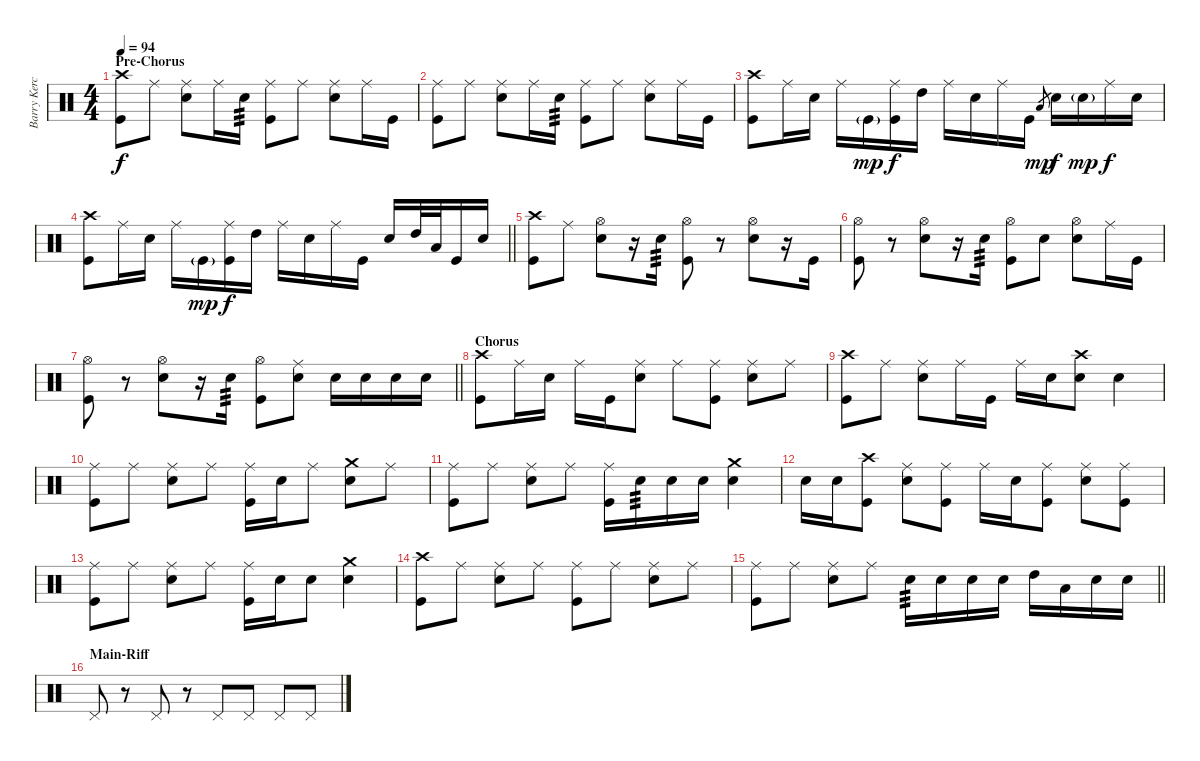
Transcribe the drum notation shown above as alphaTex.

\track ("Barry Kerch" "Barry Kerc") {instrument percussion}
\staff {score}
\articulation defaults
\ts (4 4)
\section ("" "Pre-Chorus")
\tempo 94
\clef neutral
\ks c
("Crash high (hit)" "Kick (hit)").8{dy f} "Ride (middle)".8 ("Ride (middle)" "Snare (hit) 2").8 "Ride (middle)".16 "Snare (hit) 2".16{tp 3} ("Ride (middle)" "Kick (hit)").8 "Ride (middle)".8 ("Ride (middle)" "Snare (hit) 2").8 "Ride (middle)".16 "Kick (hit)".16 |
("Ride (middle)" "Kick (hit)").8 "Ride (middle)".8 ("Ride (middle)" "Snare (hit) 2").8 "Ride (middle)".16 "Snare (hit) 2".16{tp 3} ("Ride (middle)" "Kick (hit)").8 "Ride (middle)".8 ("Ride (middle)" "Snare (hit) 2").8 "Ride (middle)".16 "Kick (hit)".16 |
("Crash high (hit)" "Kick (hit)").8 "Ride (middle)".16 "Snare (hit) 2".16 "Ride (middle)".16 "Kick (hit)"{g}.16{dy mp} ("Ride (middle)" "Kick (hit)").16{dy f} "High Tom (hit)".16 "Ride (middle)".16 "Snare (hit) 2".16 "Ride (middle)".16 "Kick (hit)".16 "Low Tom (hit)".8{gr dy mp} "Snare (hit) 2".16{dy f} "Snare (hit) 2"{g}.16{dy mp} "Ride (middle)".16{dy f} "Snare (hit) 2".16 |
\barLineRight lightlight
("Crash high (hit)" "Kick (hit)").8 "Ride (middle)".16 "Snare (hit) 2".16 "Ride (middle)".16 "Kick (hit)"{g}.16{dy mp} ("Ride (middle)" "Kick (hit)").16{dy f} "High Tom (hit)".16 "Ride (middle)".16 "Snare (hit) 2".16 "Ride (middle)".16 "Kick (hit)".16 "Snare (hit) 2".16 "High Tom (hit)".32 "Low Tom (hit)".32 "Kick (hit)".16 "Snare (hit) 2".16 |
\section ("" "")
("Crash high (hit)" "Kick (hit)").8 "Ride (middle)".8 ("Hi-Hat (open)" "Snare (hit) 2").8 r.16 "Snare (hit) 2".16{tp 3} ("Hi-Hat (open)" "Kick (hit)").8 r.8 ("Hi-Hat (open)" "Snare (hit) 2").8 r.16 "Kick (hit)".16 |
("Hi-Hat (open)" "Kick (hit)").8 r.8 ("Hi-Hat (open)" "Snare (hit) 2").8 r.16 "Snare (hit) 2".16{tp 3} ("Hi-Hat (open)" "Kick (hit)").8 "Snare (hit) 2".8 ("Hi-Hat (open)" "Snare (hit) 2").8 "Ride (middle)".16 "Kick (hit)".16 |
\barLineRight lightlight
("Hi-Hat (open)" "Kick (hit)").8 r.8 ("Hi-Hat (open)" "Snare (hit) 2").8 r.16 "Snare (hit) 2".16{tp 3} ("Hi-Hat (open)" "Kick (hit)").8 ("Ride (middle)" "Snare (hit) 2").8 "Snare (hit) 2".16 "Snare (hit) 2".16 "Snare (hit) 2".16 "Snare (hit) 2".16 |
\section ("" "Chorus")
("Crash high (hit)" "Kick (hit)").8 "Ride (middle)".16 "Snare (hit) 2".16 "Ride (middle)".16 "Kick (hit)".16 ("Ride (middle)" "Snare (hit) 2").8 "Ride (middle)".8 ("Ride (middle)" "Kick (hit)").8 ("Ride (middle)" "Snare (hit) 2").8 "Ride (middle)".8 |
("Crash high (hit)" "Kick (hit)").8 "Ride (middle)".8 ("Ride (middle)" "Snare (hit) 2").8 "Ride (middle)".16 "Kick (hit)".16 "Ride (middle)".16 "Snare (hit) 2".16 ("Crash high (hit)" "Snare (hit) 2").8 "Snare (hit) 2".4 |
("Ride (middle)" "Kick (hit)").8 "Ride (middle)".8 ("Ride (middle)" "Snare (hit) 2").8 "Ride (middle)".8 ("Ride (middle)" "Kick (hit)").16 "Snare (hit) 2".16 "Ride (middle)".8 ("Crash medium (hit)" "Snare (hit) 2").8 "Ride (middle)".8 |
("Ride (middle)" "Kick (hit)").8 "Ride (middle)".8 ("Ride (middle)" "Snare (hit) 2").8 "Ride (middle)".8 ("Ride (middle)" "Kick (hit)").16 "Snare (hit) 2".16{tp 3} "Snare (hit) 2".16 "Snare (hit) 2".16 ("Crash medium (hit)" "Snare (hit) 2").4 |
"Snare (hit) 2".16 "Snare (hit) 2".16 ("Crash high (hit)" "Kick (hit)").8 ("Ride (middle)" "Snare (hit) 2").8 ("Ride (middle)" "Kick (hit)").8 "Ride (middle)".16 "Snare (hit) 2".16 ("Ride (middle)" "Kick (hit)").8 ("Ride (middle)" "Snare (hit) 2").8 ("Ride (middle)" "Kick (hit)").8 |
("Ride (middle)" "Kick (hit)").8 "Ride (middle)".8 ("Ride (middle)" "Snare (hit) 2").8 "Ride (middle)".8 ("Ride (middle)" "Kick (hit)").16 "Snare (hit) 2".16 "Snare (hit) 2".8 ("Crash medium (hit)" "Snare (hit) 2").4 |
("Crash high (hit)" "Kick (hit)").8 "Ride (middle)".8 ("Ride (middle)" "Snare (hit) 2").8 "Ride (middle)".8 ("Ride (middle)" "Kick (hit)").8 "Ride (middle)".8 ("Ride (middle)" "Snare (hit) 2").8 "Ride (middle)".8 |
\barLineRight lightlight
("Ride (middle)" "Kick (hit)").8 "Ride (middle)".8 ("Ride (middle)" "Snare (hit) 2").8 "Ride (middle)".8 "Snare (hit) 2".16{tp 3} "Snare (hit) 2".16 "Snare (hit) 2".16 "Snare (hit) 2".16 "High Tom (hit)".16 "Low Tom (hit)".16 "Snare (hit) 2".16 "Snare (hit) 2".16 |
\section ("" "Main-Riff")
"Pedal Hi-Hat (hit)".8 r.8 "Pedal Hi-Hat (hit)".8 r.8 "Pedal Hi-Hat (hit)".8 "Pedal Hi-Hat (hit)".8 "Pedal Hi-Hat (hit)".8 "Pedal Hi-Hat (hit)".8
